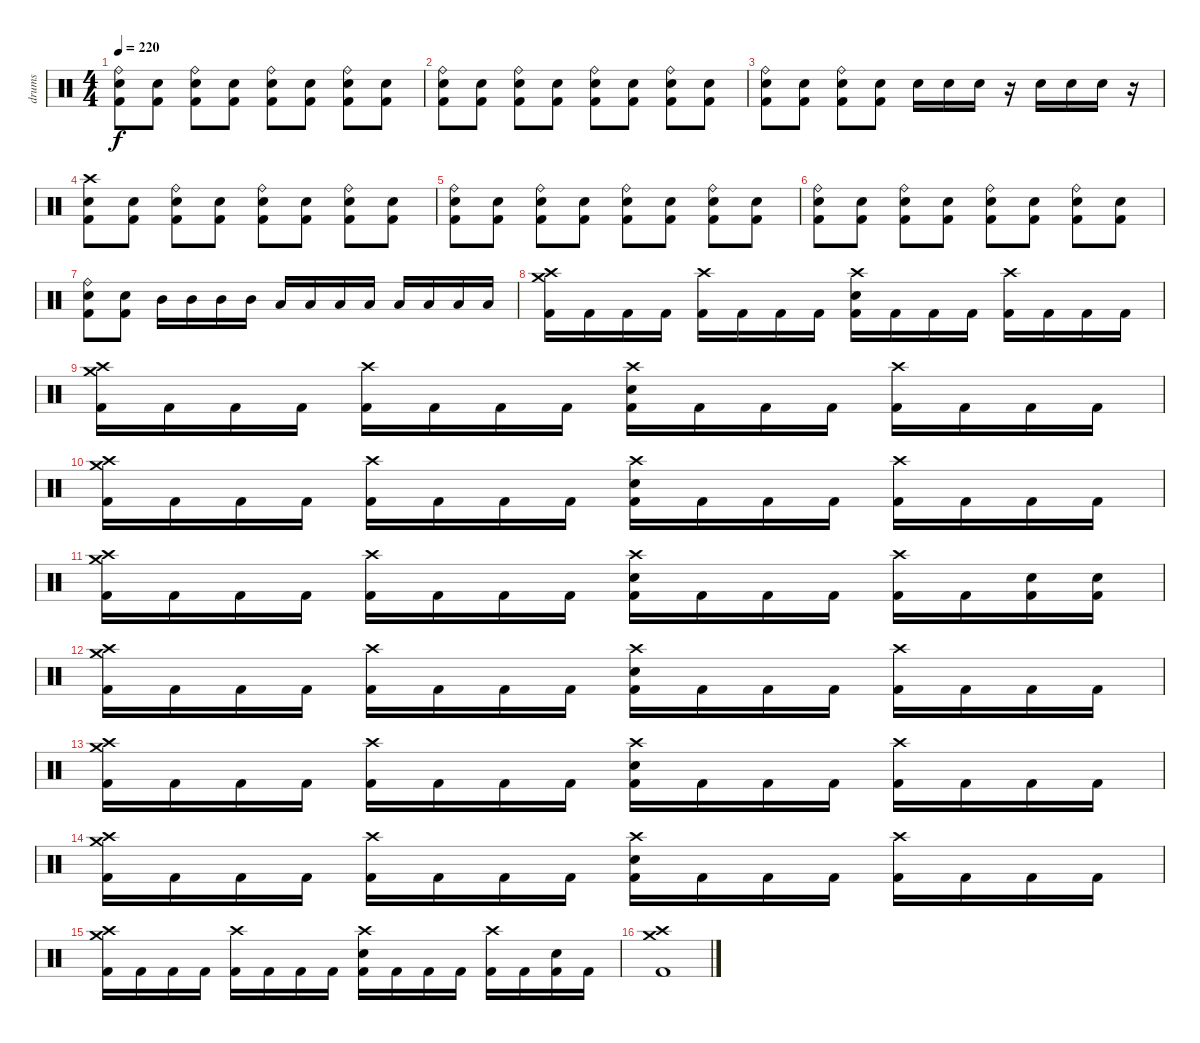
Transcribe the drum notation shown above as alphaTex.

\track ("drums" "drums") {instrument percussion}
\staff {score}
\articulation defaults
\ts (4 4)
\tempo 220
\clef neutral
\ks c
("Ride (bell)" "Electric Snare (hit)" "Kick (hit) 2").8{dy f} ("Electric Snare (hit)" "Kick (hit) 2").8 ("Ride (bell)" "Electric Snare (hit)" "Kick (hit) 2").8 ("Electric Snare (hit)" "Kick (hit) 2").8 ("Ride (bell)" "Electric Snare (hit)" "Kick (hit) 2").8 ("Electric Snare (hit)" "Kick (hit) 2").8 ("Ride (bell)" "Electric Snare (hit)" "Kick (hit) 2").8 ("Electric Snare (hit)" "Kick (hit) 2").8 |
("Ride (bell)" "Electric Snare (hit)" "Kick (hit) 2").8 ("Electric Snare (hit)" "Kick (hit) 2").8 ("Ride (bell)" "Electric Snare (hit)" "Kick (hit) 2").8 ("Electric Snare (hit)" "Kick (hit) 2").8 ("Ride (bell)" "Electric Snare (hit)" "Kick (hit) 2").8 ("Electric Snare (hit)" "Kick (hit) 2").8 ("Ride (bell)" "Electric Snare (hit)" "Kick (hit) 2").8 ("Electric Snare (hit)" "Kick (hit) 2").8 |
("Ride (bell)" "Electric Snare (hit)" "Kick (hit) 2").8 ("Electric Snare (hit)" "Kick (hit) 2").8 ("Ride (bell)" "Electric Snare (hit)" "Kick (hit) 2").8 ("Electric Snare (hit)" "Kick (hit) 2").8 "Electric Snare (hit)".16 "Electric Snare (hit)".16 "Electric Snare (hit)".16 r.16 "Electric Snare (hit)".16 "Electric Snare (hit)".16 "Electric Snare (hit)".16 r.16 |
("Crash high (hit)" "Electric Snare (hit)" "Kick (hit) 2").8 ("Electric Snare (hit)" "Kick (hit) 2").8 ("Ride (bell)" "Electric Snare (hit)" "Kick (hit) 2").8 ("Electric Snare (hit)" "Kick (hit) 2").8 ("Ride (bell)" "Electric Snare (hit)" "Kick (hit) 2").8 ("Electric Snare (hit)" "Kick (hit) 2").8 ("Ride (bell)" "Electric Snare (hit)" "Kick (hit) 2").8 ("Electric Snare (hit)" "Kick (hit) 2").8 |
("Ride (bell)" "Electric Snare (hit)" "Kick (hit) 2").8 ("Electric Snare (hit)" "Kick (hit) 2").8 ("Ride (bell)" "Electric Snare (hit)" "Kick (hit) 2").8 ("Electric Snare (hit)" "Kick (hit) 2").8 ("Ride (bell)" "Electric Snare (hit)" "Kick (hit) 2").8 ("Electric Snare (hit)" "Kick (hit) 2").8 ("Ride (bell)" "Electric Snare (hit)" "Kick (hit) 2").8 ("Electric Snare (hit)" "Kick (hit) 2").8 |
("Ride (bell)" "Electric Snare (hit)" "Kick (hit) 2").8 ("Electric Snare (hit)" "Kick (hit) 2").8 ("Ride (bell)" "Electric Snare (hit)" "Kick (hit) 2").8 ("Electric Snare (hit)" "Kick (hit) 2").8 ("Ride (bell)" "Electric Snare (hit)" "Kick (hit) 2").8 ("Electric Snare (hit)" "Kick (hit) 2").8 ("Ride (bell)" "Electric Snare (hit)" "Kick (hit) 2").8 ("Electric Snare (hit)" "Kick (hit) 2").8 |
("Ride (bell)" "Electric Snare (hit)" "Kick (hit) 2").8 ("Electric Snare (hit)" "Kick (hit) 2").8 "Mid Tom (hit)".16 "Mid Tom (hit)".16 "Mid Tom (hit)".16 "Mid Tom (hit)".16 "Low Tom (hit)".16 "Low Tom (hit)".16 "Low Tom (hit)".16 "Low Tom (hit)".16 "Low Floor Tom (hit)".16 "Low Floor Tom (hit)".16 "Low Floor Tom (hit)".16 "Low Floor Tom (hit)".16 |
("Crash high (hit)" "Crash medium (hit)" "Kick (hit) 2").16 "Kick (hit) 2".16 "Kick (hit) 2".16 "Kick (hit) 2".16 ("Crash high (hit)" "Kick (hit) 2").16 "Kick (hit) 2".16 "Kick (hit) 2".16 "Kick (hit) 2".16 ("Crash high (hit)" "Electric Snare (hit)" "Kick (hit) 2").16 "Kick (hit) 2".16 "Kick (hit) 2".16 "Kick (hit) 2".16 ("Crash high (hit)" "Kick (hit) 2").16 "Kick (hit) 2".16 "Kick (hit) 2".16 "Kick (hit) 2".16 |
("Crash high (hit)" "Crash medium (hit)" "Kick (hit) 2").16 "Kick (hit) 2".16 "Kick (hit) 2".16 "Kick (hit) 2".16 ("Crash high (hit)" "Kick (hit) 2").16 "Kick (hit) 2".16 "Kick (hit) 2".16 "Kick (hit) 2".16 ("Crash high (hit)" "Electric Snare (hit)" "Kick (hit) 2").16 "Kick (hit) 2".16 "Kick (hit) 2".16 "Kick (hit) 2".16 ("Crash high (hit)" "Kick (hit) 2").16 "Kick (hit) 2".16 "Kick (hit) 2".16 "Kick (hit) 2".16 |
("Crash high (hit)" "Crash medium (hit)" "Kick (hit) 2").16 "Kick (hit) 2".16 "Kick (hit) 2".16 "Kick (hit) 2".16 ("Crash high (hit)" "Kick (hit) 2").16 "Kick (hit) 2".16 "Kick (hit) 2".16 "Kick (hit) 2".16 ("Crash high (hit)" "Electric Snare (hit)" "Kick (hit) 2").16 "Kick (hit) 2".16 "Kick (hit) 2".16 "Kick (hit) 2".16 ("Crash high (hit)" "Kick (hit) 2").16 "Kick (hit) 2".16 "Kick (hit) 2".16 "Kick (hit) 2".16 |
("Crash high (hit)" "Crash medium (hit)" "Kick (hit) 2").16 "Kick (hit) 2".16 "Kick (hit) 2".16 "Kick (hit) 2".16 ("Crash high (hit)" "Kick (hit) 2").16 "Kick (hit) 2".16 "Kick (hit) 2".16 "Kick (hit) 2".16 ("Crash high (hit)" "Electric Snare (hit)" "Kick (hit) 2").16 "Kick (hit) 2".16 "Kick (hit) 2".16 "Kick (hit) 2".16 ("Crash high (hit)" "Kick (hit) 2").16 "Kick (hit) 2".16 ("Electric Snare (hit)" "Kick (hit) 2").16 ("Electric Snare (hit)" "Kick (hit) 2").16 |
("Crash high (hit)" "Crash medium (hit)" "Kick (hit) 2").16 "Kick (hit) 2".16 "Kick (hit) 2".16 "Kick (hit) 2".16 ("Crash high (hit)" "Kick (hit) 2").16 "Kick (hit) 2".16 "Kick (hit) 2".16 "Kick (hit) 2".16 ("Crash high (hit)" "Electric Snare (hit)" "Kick (hit) 2").16 "Kick (hit) 2".16 "Kick (hit) 2".16 "Kick (hit) 2".16 ("Crash high (hit)" "Kick (hit) 2").16 "Kick (hit) 2".16 "Kick (hit) 2".16 "Kick (hit) 2".16 |
("Crash high (hit)" "Crash medium (hit)" "Kick (hit) 2").16 "Kick (hit) 2".16 "Kick (hit) 2".16 "Kick (hit) 2".16 ("Crash high (hit)" "Kick (hit) 2").16 "Kick (hit) 2".16 "Kick (hit) 2".16 "Kick (hit) 2".16 ("Crash high (hit)" "Electric Snare (hit)" "Kick (hit) 2").16 "Kick (hit) 2".16 "Kick (hit) 2".16 "Kick (hit) 2".16 ("Crash high (hit)" "Kick (hit) 2").16 "Kick (hit) 2".16 "Kick (hit) 2".16 "Kick (hit) 2".16 |
("Crash high (hit)" "Crash medium (hit)" "Kick (hit) 2").16 "Kick (hit) 2".16 "Kick (hit) 2".16 "Kick (hit) 2".16 ("Crash high (hit)" "Kick (hit) 2").16 "Kick (hit) 2".16 "Kick (hit) 2".16 "Kick (hit) 2".16 ("Crash high (hit)" "Electric Snare (hit)" "Kick (hit) 2").16 "Kick (hit) 2".16 "Kick (hit) 2".16 "Kick (hit) 2".16 ("Crash high (hit)" "Kick (hit) 2").16 "Kick (hit) 2".16 "Kick (hit) 2".16 "Kick (hit) 2".16 |
("Crash high (hit)" "Crash medium (hit)" "Kick (hit) 2").16 "Kick (hit) 2".16 "Kick (hit) 2".16 "Kick (hit) 2".16 ("Crash high (hit)" "Kick (hit) 2").16 "Kick (hit) 2".16 "Kick (hit) 2".16 "Kick (hit) 2".16 ("Crash high (hit)" "Electric Snare (hit)" "Kick (hit) 2").16 "Kick (hit) 2".16 "Kick (hit) 2".16 "Kick (hit) 2".16 ("Crash high (hit)" "Kick (hit) 2").16 "Kick (hit) 2".16 ("Electric Snare (hit)" "Kick (hit) 2").16 "Kick (hit) 2".16 |
("Crash high (hit)" "Crash medium (hit)" "Kick (hit) 2").1
